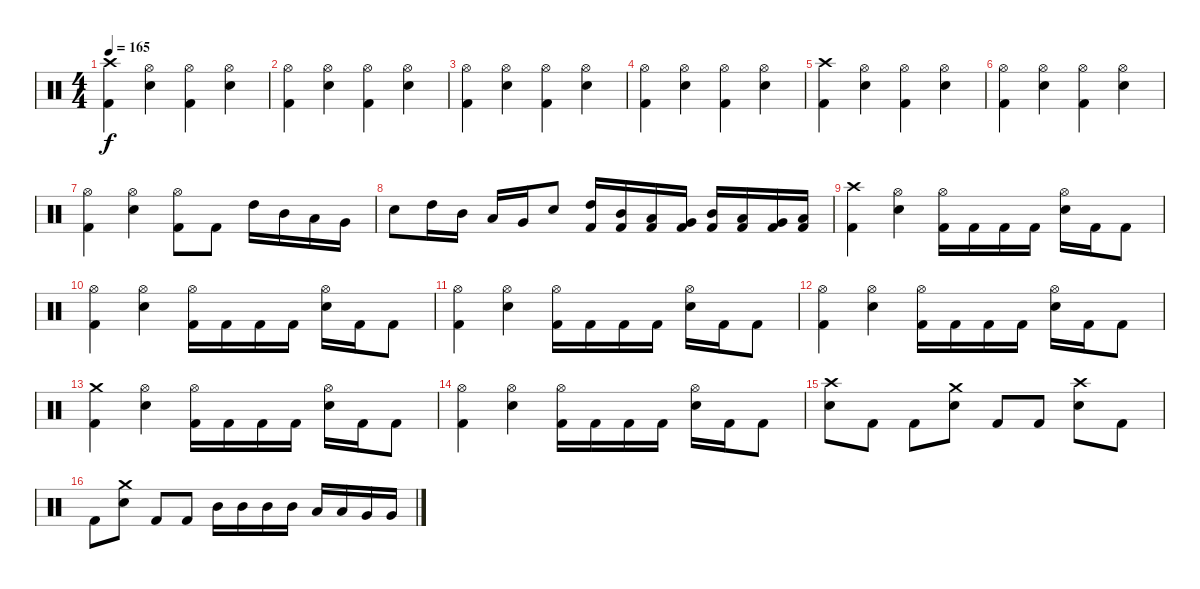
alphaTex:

\track "" {instrument percussion}
\staff {score}
\articulation defaults
\ts (4 4)
\tempo 165
\clef neutral
\ks c
("Kick (hit) 2" "Crash high (hit)").4{dy f} ("Electric Snare (hit)" "Hi-Hat (open)").4 ("Kick (hit) 2" "Hi-Hat (open)").4 ("Electric Snare (hit)" "Hi-Hat (open)").4 |
("Hi-Hat (open)" "Kick (hit) 2").4 ("Hi-Hat (open)" "Electric Snare (hit)").4 ("Hi-Hat (open)" "Kick (hit) 2").4 ("Hi-Hat (open)" "Electric Snare (hit)").4 |
("Hi-Hat (open)" "Kick (hit) 2").4 ("Hi-Hat (open)" "Electric Snare (hit)").4 ("Hi-Hat (open)" "Kick (hit) 2").4 ("Hi-Hat (open)" "Electric Snare (hit)").4 |
("Hi-Hat (open)" "Kick (hit) 2").4 ("Hi-Hat (open)" "Electric Snare (hit)").4 ("Hi-Hat (open)" "Kick (hit) 2").4 ("Hi-Hat (open)" "Electric Snare (hit)").4 |
("Kick (hit) 2" "Crash high (hit)").4 ("Electric Snare (hit)" "Hi-Hat (open)").4 ("Kick (hit) 2" "Hi-Hat (open)").4 ("Electric Snare (hit)" "Hi-Hat (open)").4 |
("Hi-Hat (open)" "Kick (hit) 2").4 ("Hi-Hat (open)" "Electric Snare (hit)").4 ("Hi-Hat (open)" "Kick (hit) 2").4 ("Hi-Hat (open)" "Electric Snare (hit)").4 |
("Hi-Hat (open)" "Kick (hit) 2").4 ("Hi-Hat (open)" "Electric Snare (hit)").4 ("Hi-Hat (open)" "Kick (hit) 2").8 "Kick (hit) 2".8 "High Tom (hit)".16 "Mid Tom (hit)".16 "Low Tom (hit)".16 "Very Low Tom (hit)".16 |
"Electric Snare (hit)".8 "High Tom (hit)".16 "Mid Tom (hit)".16 "Low Tom (hit)".16 "Very Low Tom (hit)".16 "Electric Snare (hit)".8 ("Kick (hit) 2" "High Tom (hit)").16 ("Kick (hit) 2" "Mid Tom (hit)").16 ("Kick (hit) 2" "Low Tom (hit)").16 ("Kick (hit) 2" "Very Low Tom (hit)").16 ("Kick (hit) 2" "Mid Tom (hit)").16 ("Kick (hit) 2" "Low Tom (hit)").16 ("Kick (hit) 2" "Very Low Tom (hit)").16 ("Kick (hit) 2" "Low Floor Tom (hit)").16 |
("Kick (hit) 2" "Crash high (hit)").4 ("Electric Snare (hit)" "Hi-Hat (open)").4 ("Hi-Hat (open)" "Kick (hit) 2").16 "Kick (hit) 2".16 "Kick (hit) 2".16 "Kick (hit) 2".16 ("Hi-Hat (open)" "Electric Snare (hit)").16 "Kick (hit) 2".16 "Kick (hit) 2".8 |
("Kick (hit) 2" "Hi-Hat (open)").4 ("Electric Snare (hit)" "Hi-Hat (open)").4 ("Kick (hit) 2" "Hi-Hat (open)").16 "Kick (hit) 2".16 "Kick (hit) 2".16 "Kick (hit) 2".16 ("Electric Snare (hit)" "Hi-Hat (open)").16 "Kick (hit) 2".16 "Kick (hit) 2".8 |
("Kick (hit) 2" "Hi-Hat (open)").4 ("Electric Snare (hit)" "Hi-Hat (open)").4 ("Hi-Hat (open)" "Kick (hit) 2").16 "Kick (hit) 2".16 "Kick (hit) 2".16 "Kick (hit) 2".16 ("Hi-Hat (open)" "Electric Snare (hit)").16 "Kick (hit) 2".16 "Kick (hit) 2".8 |
("Kick (hit) 2" "Hi-Hat (open)").4 ("Electric Snare (hit)" "Hi-Hat (open)").4 ("Kick (hit) 2" "Hi-Hat (open)").16 "Kick (hit) 2".16 "Kick (hit) 2".16 "Kick (hit) 2".16 ("Electric Snare (hit)" "Hi-Hat (open)").16 "Kick (hit) 2".16 "Kick (hit) 2".8 |
("Kick (hit) 2" "Crash medium (hit)").4 ("Electric Snare (hit)" "Hi-Hat (open)").4 ("Hi-Hat (open)" "Kick (hit) 2").16 "Kick (hit) 2".16 "Kick (hit) 2".16 "Kick (hit) 2".16 ("Hi-Hat (open)" "Electric Snare (hit)").16 "Kick (hit) 2".16 "Kick (hit) 2".8 |
("Kick (hit) 2" "Hi-Hat (open)").4 ("Electric Snare (hit)" "Hi-Hat (open)").4 ("Kick (hit) 2" "Hi-Hat (open)").16 "Kick (hit) 2".16 "Kick (hit) 2".16 "Kick (hit) 2".16 ("Electric Snare (hit)" "Hi-Hat (open)").16 "Kick (hit) 2".16 "Kick (hit) 2".8 |
("Crash high (hit)" "Electric Snare (hit)").8 "Kick (hit) 2".8 "Kick (hit) 2".8 ("Crash medium (hit)" "Electric Snare (hit)").8 "Kick (hit) 2".8 "Kick (hit) 2".8 ("Crash high (hit)" "Electric Snare (hit)").8 "Kick (hit) 2".8 |
"Kick (hit) 2".8 ("Crash medium (hit)" "Electric Snare (hit)").8 "Kick (hit) 2".8 "Kick (hit) 2".8 "Mid Tom (hit)".16 "Mid Tom (hit)".16 "Mid Tom (hit)".16 "Mid Tom (hit)".16 "Low Tom (hit)".16 "Low Tom (hit)".16 "Very Low Tom (hit)".16 "Very Low Tom (hit)".16
